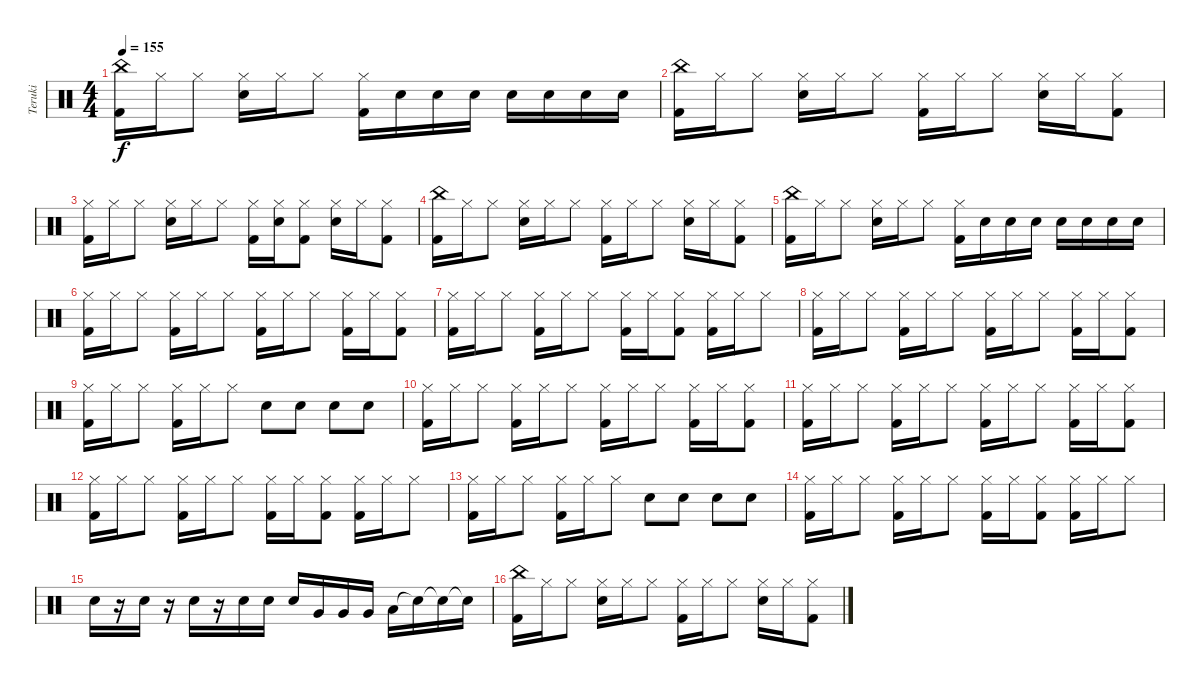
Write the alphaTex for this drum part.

\track ("Teruki" "Teruki") {instrument percussion}
\staff {score}
\articulation defaults
\ts (4 4)
\tempo 155
\clef neutral
\ks c
("China (hit)" "Kick (hit) 2").16{dy f} "Hi-Hat (closed)".16 "Hi-Hat (closed)".8 ("Hi-Hat (closed)" "Snare (hit) 2").16 "Hi-Hat (closed)".16 "Hi-Hat (closed)".8 ("Hi-Hat (closed)" "Kick (hit) 2").16 "Snare (hit) 2".16 "Snare (hit) 2".16 "Snare (hit) 2".16 "Snare (hit) 2".16 "Snare (hit) 2".16 "Snare (hit) 2".16 "Snare (hit) 2".16 |
("China (hit)" "Kick (hit) 2").16 "Hi-Hat (closed)".16 "Hi-Hat (closed)".8 ("Hi-Hat (closed)" "Snare (hit) 2").16 "Hi-Hat (closed)".16 "Hi-Hat (closed)".8 ("Hi-Hat (closed)" "Kick (hit) 2").16 "Hi-Hat (closed)".16 "Hi-Hat (closed)".8 ("Hi-Hat (closed)" "Snare (hit) 2").16 "Hi-Hat (closed)".16 ("Hi-Hat (closed)" "Kick (hit) 2").8 |
("Hi-Hat (closed)" "Kick (hit) 2").16 "Hi-Hat (closed)".16 "Hi-Hat (closed)".8 ("Hi-Hat (closed)" "Snare (hit) 2").16 "Hi-Hat (closed)".16 "Hi-Hat (closed)".8 ("Hi-Hat (closed)" "Kick (hit) 2").16 ("Hi-Hat (closed)" "Snare (hit) 2").16 ("Hi-Hat (closed)" "Kick (hit) 2").8 ("Hi-Hat (closed)" "Snare (hit) 2").16 "Hi-Hat (closed)".16 ("Hi-Hat (closed)" "Kick (hit) 2").8 |
("China (hit)" "Kick (hit) 2").16 "Hi-Hat (closed)".16 "Hi-Hat (closed)".8 ("Hi-Hat (closed)" "Snare (hit) 2").16 "Hi-Hat (closed)".16 "Hi-Hat (closed)".8 ("Hi-Hat (closed)" "Kick (hit) 2").16 "Hi-Hat (closed)".16 "Hi-Hat (closed)".8 ("Hi-Hat (closed)" "Snare (hit) 2").16 "Hi-Hat (closed)".16 ("Hi-Hat (closed)" "Kick (hit) 2").8 |
("China (hit)" "Kick (hit) 2").16 "Hi-Hat (closed)".16 "Hi-Hat (closed)".8 ("Hi-Hat (closed)" "Snare (hit) 2").16 "Hi-Hat (closed)".16 "Hi-Hat (closed)".8 ("Hi-Hat (closed)" "Kick (hit) 2").16 "Snare (hit) 2".16 "Snare (hit) 2".16 "Snare (hit) 2".16 "Snare (hit) 2".16 "Snare (hit) 2".16 "Snare (hit) 2".16 "Snare (hit) 2".16 |
("Hi-Hat (closed)" "Kick (hit) 2").16 "Hi-Hat (closed)".16 "Hi-Hat (closed)".8 ("Hi-Hat (closed)" "Kick (hit) 2").16 "Hi-Hat (closed)".16 "Hi-Hat (closed)".8 ("Hi-Hat (closed)" "Kick (hit) 2").16 "Hi-Hat (closed)".16 "Hi-Hat (closed)".8 ("Hi-Hat (closed)" "Kick (hit) 2").16 "Hi-Hat (closed)".16 ("Hi-Hat (closed)" "Kick (hit) 2").8 |
("Hi-Hat (closed)" "Kick (hit) 2").16 "Hi-Hat (closed)".16 "Hi-Hat (closed)".8 ("Hi-Hat (closed)" "Kick (hit) 2").16 "Hi-Hat (closed)".16 "Hi-Hat (closed)".8 ("Hi-Hat (closed)" "Kick (hit) 2").16 "Hi-Hat (closed)".16 ("Hi-Hat (closed)" "Kick (hit) 2").8 ("Hi-Hat (closed)" "Kick (hit) 2").16 "Hi-Hat (closed)".16 "Hi-Hat (closed)".8 |
("Hi-Hat (closed)" "Kick (hit) 2").16 "Hi-Hat (closed)".16 "Hi-Hat (closed)".8 ("Hi-Hat (closed)" "Kick (hit) 2").16 "Hi-Hat (closed)".16 "Hi-Hat (closed)".8 ("Hi-Hat (closed)" "Kick (hit) 2").16 "Hi-Hat (closed)".16 "Hi-Hat (closed)".8 ("Hi-Hat (closed)" "Kick (hit) 2").16 "Hi-Hat (closed)".16 ("Hi-Hat (closed)" "Kick (hit) 2").8 |
("Hi-Hat (closed)" "Kick (hit) 2").16 "Hi-Hat (closed)".16 "Hi-Hat (closed)".8 ("Hi-Hat (closed)" "Kick (hit) 2").16 "Hi-Hat (closed)".16 "Hi-Hat (closed)".8 "Snare (hit) 2".8 "Snare (hit) 2".8 "Snare (hit) 2".8 "Snare (hit) 2".8 |
("Hi-Hat (closed)" "Kick (hit) 2").16 "Hi-Hat (closed)".16 "Hi-Hat (closed)".8 ("Hi-Hat (closed)" "Kick (hit) 2").16 "Hi-Hat (closed)".16 "Hi-Hat (closed)".8 ("Hi-Hat (closed)" "Kick (hit) 2").16 "Hi-Hat (closed)".16 "Hi-Hat (closed)".8 ("Hi-Hat (closed)" "Kick (hit) 2").16 "Hi-Hat (closed)".16 ("Hi-Hat (closed)" "Kick (hit) 2").8 |
("Hi-Hat (closed)" "Kick (hit) 2").16 "Hi-Hat (closed)".16 "Hi-Hat (closed)".8 ("Hi-Hat (closed)" "Kick (hit) 2").16 "Hi-Hat (closed)".16 "Hi-Hat (closed)".8 ("Hi-Hat (closed)" "Kick (hit) 2").16 "Hi-Hat (closed)".16 "Hi-Hat (closed)".8 ("Hi-Hat (closed)" "Kick (hit) 2").16 "Hi-Hat (closed)".16 ("Hi-Hat (closed)" "Kick (hit) 2").8 |
("Hi-Hat (closed)" "Kick (hit) 2").16 "Hi-Hat (closed)".16 "Hi-Hat (closed)".8 ("Hi-Hat (closed)" "Kick (hit) 2").16 "Hi-Hat (closed)".16 "Hi-Hat (closed)".8 ("Hi-Hat (closed)" "Kick (hit) 2").16 "Hi-Hat (closed)".16 ("Hi-Hat (closed)" "Kick (hit) 2").8 ("Hi-Hat (closed)" "Kick (hit) 2").16 "Hi-Hat (closed)".16 "Hi-Hat (closed)".8 |
("Hi-Hat (closed)" "Kick (hit) 2").16 "Hi-Hat (closed)".16 "Hi-Hat (closed)".8 ("Hi-Hat (closed)" "Kick (hit) 2").16 "Hi-Hat (closed)".16 "Hi-Hat (closed)".8 "Snare (hit) 2".8 "Snare (hit) 2".8 "Snare (hit) 2".8 "Snare (hit) 2".8 |
("Hi-Hat (closed)" "Kick (hit) 2").16 "Hi-Hat (closed)".16 "Hi-Hat (closed)".8 ("Hi-Hat (closed)" "Kick (hit) 2").16 "Hi-Hat (closed)".16 "Hi-Hat (closed)".8 ("Hi-Hat (closed)" "Kick (hit) 2").16 "Hi-Hat (closed)".16 ("Hi-Hat (closed)" "Kick (hit) 2").8 ("Hi-Hat (closed)" "Kick (hit) 2").16 "Hi-Hat (closed)".16 "Hi-Hat (closed)".8 |
"Snare (hit) 2".16 r.16 "Snare (hit) 2".16 r.16 "Snare (hit) 2".16 r.16 "Snare (hit) 2".16 "Snare (hit) 2".16 "Snare (hit) 2".16 "Very Low Tom (hit)".16 "Very Low Tom (hit)".16 "Very Low Tom (hit)".16 "Low Floor Tom (hit)".16 "Snare (hit)"{t}.16 "Snare (hit)"{t}.16 "Snare (hit)"{t}.16 |
("China (hit)" "Kick (hit) 2").16 "Hi-Hat (closed)".16 "Hi-Hat (closed)".8 ("Hi-Hat (closed)" "Snare (hit) 2").16 "Hi-Hat (closed)".16 "Hi-Hat (closed)".8 ("Hi-Hat (closed)" "Kick (hit) 2").16 "Hi-Hat (closed)".16 "Hi-Hat (closed)".8 ("Hi-Hat (closed)" "Snare (hit) 2").16 "Hi-Hat (closed)".16 ("Hi-Hat (closed)" "Kick (hit) 2").8
